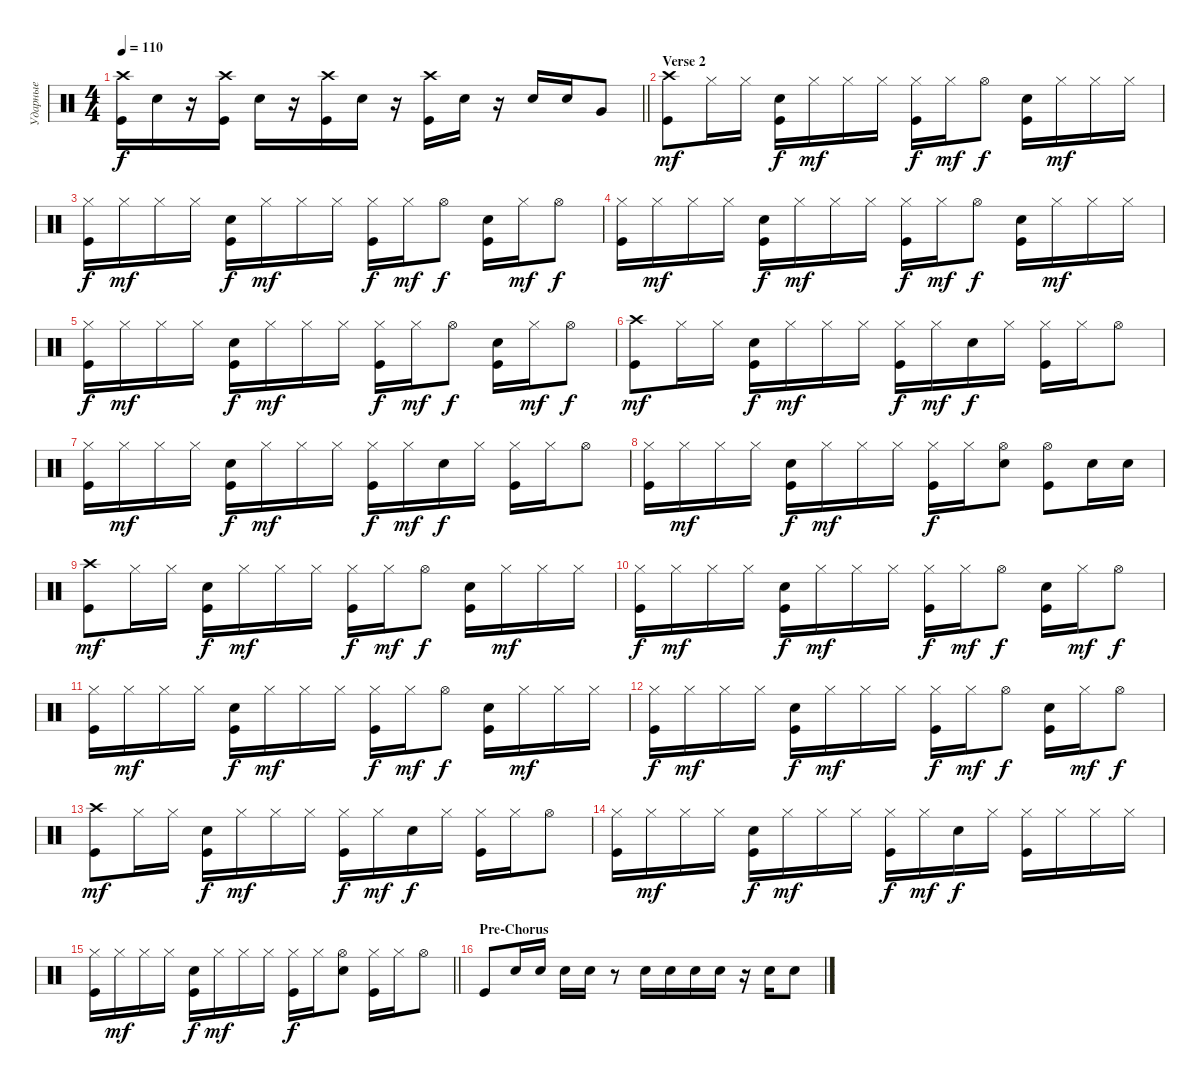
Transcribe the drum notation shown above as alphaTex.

\track ("Ударные" "Ударные") {instrument percussion}
\staff {score}
\articulation defaults
\ts (4 4)
\tempo 110
\clef neutral
\barLineRight lightlight
\ks aminor
("Kick (hit)" "Crash high (hit)").16{dy f} "Snare (hit) 2".16 r.16 ("Kick (hit)" "Crash high (hit)").16 "Snare (hit) 2".16 r.16 ("Kick (hit)" "Crash high (hit)").16 "Snare (hit) 2".16 r.16 ("Kick (hit)" "Crash high (hit)").16 "Snare (hit) 2".16 r.16 "Snare (hit) 2".16 "Snare (hit) 2".16 "Very Low Tom (hit)".8 |
\section ("" "Verse 2")
\ks c
("Crash high (hit)" "Kick (hit)").8{dy mf} "Hi-Hat (closed)".16 "Hi-Hat (closed)".16 ("Snare (hit) 2" "Kick (hit)").16{dy f} "Hi-Hat (closed)".16{dy mf} "Hi-Hat (closed)".16 "Hi-Hat (closed)".16 ("Hi-Hat (closed)" "Kick (hit)").16{dy f} "Hi-Hat (closed)".16{dy mf} "Hi-Hat (open)".8{dy f} ("Kick (hit)" "Snare (hit) 2").16 "Hi-Hat (closed)".16{dy mf} "Hi-Hat (closed)".16 "Hi-Hat (closed)".16 |
("Hi-Hat (closed)" "Kick (hit)").16{dy f} "Hi-Hat (closed)".16{dy mf} "Hi-Hat (closed)".16 "Hi-Hat (closed)".16 ("Snare (hit) 2" "Kick (hit)").16{dy f} "Hi-Hat (closed)".16{dy mf} "Hi-Hat (closed)".16 "Hi-Hat (closed)".16 ("Hi-Hat (closed)" "Kick (hit)").16{dy f} "Hi-Hat (closed)".16{dy mf} "Hi-Hat (open)".8{dy f} ("Kick (hit)" "Snare (hit) 2").16 "Hi-Hat (closed)".16{dy mf} "Hi-Hat (open)".8{dy f} |
("Hi-Hat (closed)" "Kick (hit)").16 "Hi-Hat (closed)".16{dy mf} "Hi-Hat (closed)".16 "Hi-Hat (closed)".16 ("Snare (hit) 2" "Kick (hit)").16{dy f} "Hi-Hat (closed)".16{dy mf} "Hi-Hat (closed)".16 "Hi-Hat (closed)".16 ("Hi-Hat (closed)" "Kick (hit)").16{dy f} "Hi-Hat (closed)".16{dy mf} "Hi-Hat (open)".8{dy f} ("Kick (hit)" "Snare (hit) 2").16 "Hi-Hat (closed)".16{dy mf} "Hi-Hat (closed)".16 "Hi-Hat (closed)".16 |
("Hi-Hat (closed)" "Kick (hit)").16{dy f} "Hi-Hat (closed)".16{dy mf} "Hi-Hat (closed)".16 "Hi-Hat (closed)".16 ("Snare (hit) 2" "Kick (hit)").16{dy f} "Hi-Hat (closed)".16{dy mf} "Hi-Hat (closed)".16 "Hi-Hat (closed)".16 ("Hi-Hat (closed)" "Kick (hit)").16{dy f} "Hi-Hat (closed)".16{dy mf} "Hi-Hat (open)".8{dy f} ("Kick (hit)" "Snare (hit) 2").16 "Hi-Hat (closed)".16{dy mf} "Hi-Hat (open)".8{dy f} |
("Crash high (hit)" "Kick (hit)").8{dy mf} "Hi-Hat (closed)".16 "Hi-Hat (closed)".16 ("Snare (hit) 2" "Kick (hit)").16{dy f} "Hi-Hat (closed)".16{dy mf} "Hi-Hat (closed)".16 "Hi-Hat (closed)".16 ("Hi-Hat (closed)" "Kick (hit)").16{dy f} "Hi-Hat (closed)".16{dy mf} "Snare (hit) 2".16{dy f} "Hi-Hat (closed)".16 ("Hi-Hat (closed)" "Kick (hit)").16 "Hi-Hat (closed)".16 "Hi-Hat (open)".8 |
("Hi-Hat (closed)" "Kick (hit)").16 "Hi-Hat (closed)".16{dy mf} "Hi-Hat (closed)".16 "Hi-Hat (closed)".16 ("Snare (hit) 2" "Kick (hit)").16{dy f} "Hi-Hat (closed)".16{dy mf} "Hi-Hat (closed)".16 "Hi-Hat (closed)".16 ("Hi-Hat (closed)" "Kick (hit)").16{dy f} "Hi-Hat (closed)".16{dy mf} "Snare (hit) 2".16{dy f} "Hi-Hat (closed)".16 ("Hi-Hat (closed)" "Kick (hit)").16 "Hi-Hat (closed)".16 "Hi-Hat (open)".8 |
("Hi-Hat (closed)" "Kick (hit)").16 "Hi-Hat (closed)".16{dy mf} "Hi-Hat (closed)".16 "Hi-Hat (closed)".16 ("Snare (hit) 2" "Kick (hit)").16{dy f} "Hi-Hat (closed)".16{dy mf} "Hi-Hat (closed)".16 "Hi-Hat (closed)".16 ("Kick (hit)" "Hi-Hat (closed)").16{dy f} "Hi-Hat (closed)".16 ("Snare (hit) 2" "Hi-Hat (open)").8 ("Kick (hit)" "Hi-Hat (open)").8 "Snare (hit) 2".16 "Snare (hit) 2".16 |
("Crash high (hit)" "Kick (hit)").8{dy mf} "Hi-Hat (closed)".16 "Hi-Hat (closed)".16 ("Snare (hit) 2" "Kick (hit)").16{dy f} "Hi-Hat (closed)".16{dy mf} "Hi-Hat (closed)".16 "Hi-Hat (closed)".16 ("Hi-Hat (closed)" "Kick (hit)").16{dy f} "Hi-Hat (closed)".16{dy mf} "Hi-Hat (open)".8{dy f} ("Kick (hit)" "Snare (hit) 2").16 "Hi-Hat (closed)".16{dy mf} "Hi-Hat (closed)".16 "Hi-Hat (closed)".16 |
("Hi-Hat (closed)" "Kick (hit)").16{dy f} "Hi-Hat (closed)".16{dy mf} "Hi-Hat (closed)".16 "Hi-Hat (closed)".16 ("Snare (hit) 2" "Kick (hit)").16{dy f} "Hi-Hat (closed)".16{dy mf} "Hi-Hat (closed)".16 "Hi-Hat (closed)".16 ("Hi-Hat (closed)" "Kick (hit)").16{dy f} "Hi-Hat (closed)".16{dy mf} "Hi-Hat (open)".8{dy f} ("Kick (hit)" "Snare (hit) 2").16 "Hi-Hat (closed)".16{dy mf} "Hi-Hat (open)".8{dy f} |
("Hi-Hat (closed)" "Kick (hit)").16 "Hi-Hat (closed)".16{dy mf} "Hi-Hat (closed)".16 "Hi-Hat (closed)".16 ("Snare (hit) 2" "Kick (hit)").16{dy f} "Hi-Hat (closed)".16{dy mf} "Hi-Hat (closed)".16 "Hi-Hat (closed)".16 ("Hi-Hat (closed)" "Kick (hit)").16{dy f} "Hi-Hat (closed)".16{dy mf} "Hi-Hat (open)".8{dy f} ("Kick (hit)" "Snare (hit) 2").16 "Hi-Hat (closed)".16{dy mf} "Hi-Hat (closed)".16 "Hi-Hat (closed)".16 |
("Hi-Hat (closed)" "Kick (hit)").16{dy f} "Hi-Hat (closed)".16{dy mf} "Hi-Hat (closed)".16 "Hi-Hat (closed)".16 ("Snare (hit) 2" "Kick (hit)").16{dy f} "Hi-Hat (closed)".16{dy mf} "Hi-Hat (closed)".16 "Hi-Hat (closed)".16 ("Hi-Hat (closed)" "Kick (hit)").16{dy f} "Hi-Hat (closed)".16{dy mf} "Hi-Hat (open)".8{dy f} ("Kick (hit)" "Snare (hit) 2").16 "Hi-Hat (closed)".16{dy mf} "Hi-Hat (open)".8{dy f} |
("Crash high (hit)" "Kick (hit)").8{dy mf} "Hi-Hat (closed)".16 "Hi-Hat (closed)".16 ("Snare (hit) 2" "Kick (hit)").16{dy f} "Hi-Hat (closed)".16{dy mf} "Hi-Hat (closed)".16 "Hi-Hat (closed)".16 ("Hi-Hat (closed)" "Kick (hit)").16{dy f} "Hi-Hat (closed)".16{dy mf} "Snare (hit) 2".16{dy f} "Hi-Hat (closed)".16 ("Hi-Hat (closed)" "Kick (hit)").16 "Hi-Hat (closed)".16 "Hi-Hat (open)".8 |
("Hi-Hat (closed)" "Kick (hit)").16 "Hi-Hat (closed)".16{dy mf} "Hi-Hat (closed)".16 "Hi-Hat (closed)".16 ("Snare (hit) 2" "Kick (hit)").16{dy f} "Hi-Hat (closed)".16{dy mf} "Hi-Hat (closed)".16 "Hi-Hat (closed)".16 ("Hi-Hat (closed)" "Kick (hit)").16{dy f} "Hi-Hat (closed)".16{dy mf} "Snare (hit) 2".16{dy f} "Hi-Hat (closed)".16 ("Hi-Hat (closed)" "Kick (hit)").16 "Hi-Hat (closed)".16 "Hi-Hat (closed)".16 "Hi-Hat (closed)".16 |
\barLineRight lightlight
("Hi-Hat (closed)" "Kick (hit)").16 "Hi-Hat (closed)".16{dy mf} "Hi-Hat (closed)".16 "Hi-Hat (closed)".16 ("Snare (hit) 2" "Kick (hit)").16{dy f} "Hi-Hat (closed)".16{dy mf} "Hi-Hat (closed)".16 "Hi-Hat (closed)".16 ("Kick (hit)" "Hi-Hat (closed)").16{dy f} "Hi-Hat (closed)".16 ("Snare (hit) 2" "Hi-Hat (open)").8 ("Kick (hit)" "Hi-Hat (closed)").16 "Hi-Hat (closed)".16 "Hi-Hat (open)".8 |
\section ("" "Pre-Chorus")
"Kick (hit)".8 "Snare (hit) 2".16 "Snare (hit) 2".16 "Snare (hit) 2".16 "Snare (hit) 2".16 r.8 "Snare (hit) 2".16 "Snare (hit) 2".16 "Snare (hit) 2".16 "Snare (hit) 2".16 r.16 "Snare (hit) 2".16 "Snare (hit) 2".8
